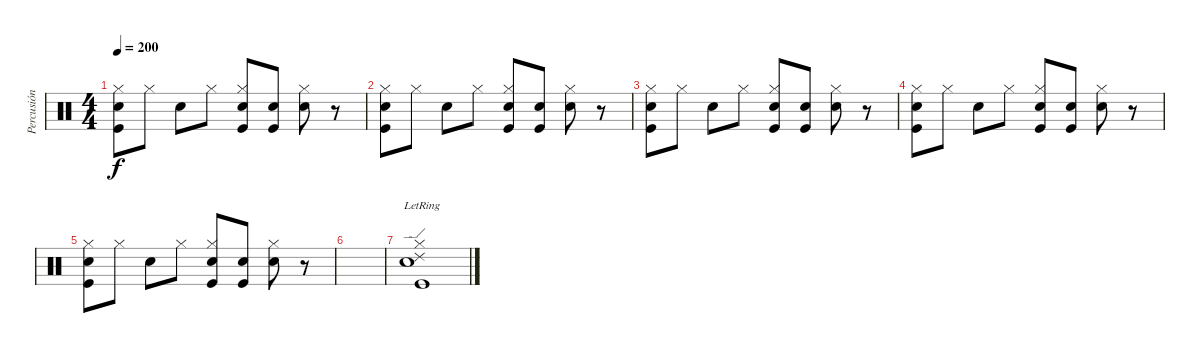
\track ("Percusión" "Percusión") {instrument percussion}
\staff {score}
\articulation defaults
\ts (4 4)
\tempo 200
\clef neutral
\ks c
("Snare (hit) 2" "Hi-Hat (closed)" "Kick (hit)").8{dy f} "Hi-Hat (closed)".8 "Electric Snare (hit)".8 "Hi-Hat (closed)".8 ("Snare (hit) 2" "Hi-Hat (closed)" "Kick (hit)").8 ("Snare (hit) 2" "Kick (hit)").8 ("Hi-Hat (closed)" "Electric Snare (hit)").8 r.8 |
("Snare (hit) 2" "Hi-Hat (closed)" "Kick (hit)").8 "Hi-Hat (closed)".8 "Electric Snare (hit)".8 "Hi-Hat (closed)".8 ("Snare (hit) 2" "Hi-Hat (closed)" "Kick (hit)").8 ("Snare (hit) 2" "Kick (hit)").8 ("Hi-Hat (closed)" "Electric Snare (hit)").8 r.8 |
("Snare (hit) 2" "Hi-Hat (closed)" "Kick (hit)").8 "Hi-Hat (closed)".8 "Electric Snare (hit)".8 "Hi-Hat (closed)".8 ("Snare (hit) 2" "Hi-Hat (closed)" "Kick (hit)").8 ("Snare (hit) 2" "Kick (hit)").8 ("Hi-Hat (closed)" "Electric Snare (hit)").8 r.8 |
("Snare (hit) 2" "Hi-Hat (closed)" "Kick (hit)").8 "Hi-Hat (closed)".8 "Electric Snare (hit)".8 "Hi-Hat (closed)".8 ("Snare (hit) 2" "Hi-Hat (closed)" "Kick (hit)").8 ("Snare (hit) 2" "Kick (hit)").8 ("Hi-Hat (closed)" "Electric Snare (hit)").8 r.8 |
("Snare (hit) 2" "Hi-Hat (closed)" "Kick (hit)").8 "Hi-Hat (closed)".8 "Electric Snare (hit)".8 "Hi-Hat (closed)".8 ("Snare (hit) 2" "Hi-Hat (closed)" "Kick (hit)").8 ("Snare (hit) 2" "Kick (hit)").8 ("Hi-Hat (closed)" "Electric Snare (hit)").8 r.8 |
|
("Snare (hit) 2" "Hi-Hat (closed)" "Ride (edge) 2"{lr} "Kick (hit)").1
